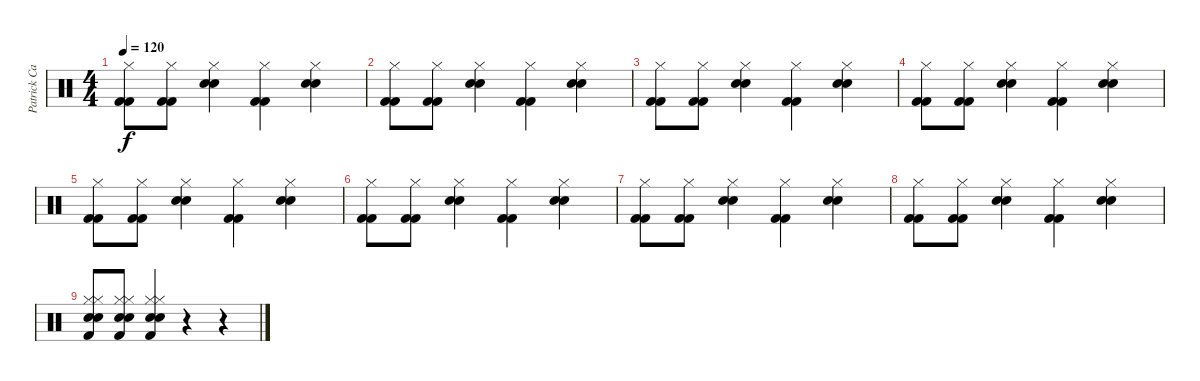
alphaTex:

\track ("Patrick Carney (Drums)" "Patrick Ca") {instrument percussion}
\staff {score}
\articulation defaults
\ts (4 4)
\tempo 120
\clef neutral
\ks c
("Kick (hit) 2" "Kick (hit) 2" "Hi-Hat (closed)").8{dy f} ("Kick (hit) 2" "Kick (hit) 2" "Hi-Hat (closed)").8 ("Electric Snare (hit)" "Snare (hit) 2" "Hi-Hat (closed)").4 ("Kick (hit) 2" "Kick (hit) 2" "Hi-Hat (closed)").4 ("Electric Snare (hit)" "Snare (hit) 2" "Hi-Hat (closed)").4 |
("Kick (hit) 2" "Kick (hit) 2" "Hi-Hat (closed)").8 ("Kick (hit) 2" "Kick (hit) 2" "Hi-Hat (closed)").8 ("Electric Snare (hit)" "Snare (hit) 2" "Hi-Hat (closed)").4 ("Kick (hit) 2" "Kick (hit) 2" "Hi-Hat (closed)").4 ("Electric Snare (hit)" "Snare (hit) 2" "Hi-Hat (closed)").4 |
("Kick (hit) 2" "Kick (hit) 2" "Hi-Hat (closed)").8 ("Kick (hit) 2" "Kick (hit) 2" "Hi-Hat (closed)").8 ("Electric Snare (hit)" "Snare (hit) 2" "Hi-Hat (closed)").4 ("Kick (hit) 2" "Kick (hit) 2" "Hi-Hat (closed)").4 ("Electric Snare (hit)" "Snare (hit) 2" "Hi-Hat (closed)").4 |
("Kick (hit) 2" "Kick (hit) 2" "Hi-Hat (closed)").8 ("Kick (hit) 2" "Kick (hit) 2" "Hi-Hat (closed)").8 ("Electric Snare (hit)" "Snare (hit) 2" "Hi-Hat (closed)").4 ("Kick (hit) 2" "Kick (hit) 2" "Hi-Hat (closed)").4 ("Electric Snare (hit)" "Snare (hit) 2" "Hi-Hat (closed)").4 |
("Kick (hit) 2" "Kick (hit) 2" "Hi-Hat (closed)").8 ("Kick (hit) 2" "Kick (hit) 2" "Hi-Hat (closed)").8 ("Electric Snare (hit)" "Snare (hit) 2" "Hi-Hat (closed)").4 ("Kick (hit) 2" "Kick (hit) 2" "Hi-Hat (closed)").4 ("Electric Snare (hit)" "Snare (hit) 2" "Hi-Hat (closed)").4 |
("Kick (hit) 2" "Kick (hit) 2" "Hi-Hat (closed)").8 ("Kick (hit) 2" "Kick (hit) 2" "Hi-Hat (closed)").8 ("Electric Snare (hit)" "Snare (hit) 2" "Hi-Hat (closed)").4 ("Kick (hit) 2" "Kick (hit) 2" "Hi-Hat (closed)").4 ("Electric Snare (hit)" "Snare (hit) 2" "Hi-Hat (closed)").4 |
("Kick (hit) 2" "Kick (hit) 2" "Hi-Hat (closed)").8 ("Kick (hit) 2" "Kick (hit) 2" "Hi-Hat (closed)").8 ("Electric Snare (hit)" "Snare (hit) 2" "Hi-Hat (closed)").4 ("Kick (hit) 2" "Kick (hit) 2" "Hi-Hat (closed)").4 ("Electric Snare (hit)" "Snare (hit) 2" "Hi-Hat (closed)").4 |
("Kick (hit) 2" "Kick (hit) 2" "Hi-Hat (closed)").8 ("Kick (hit) 2" "Kick (hit) 2" "Hi-Hat (closed)").8 ("Electric Snare (hit)" "Snare (hit) 2" "Hi-Hat (closed)").4 ("Kick (hit) 2" "Kick (hit) 2" "Hi-Hat (closed)").4 ("Electric Snare (hit)" "Snare (hit) 2" "Hi-Hat (closed)").4 |
("Electric Snare (hit)" "Snare (hit) 2" "Hi-Hat (closed)" "Hi-Hat (closed)" "Kick (hit) 2").8 ("Electric Snare (hit)" "Snare (hit) 2" "Hi-Hat (closed)" "Hi-Hat (closed)" "Kick (hit) 2").8 ("Electric Snare (hit)" "Snare (hit) 2" "Hi-Hat (closed)" "Hi-Hat (closed)" "Kick (hit) 2").4 r.4 r.4
